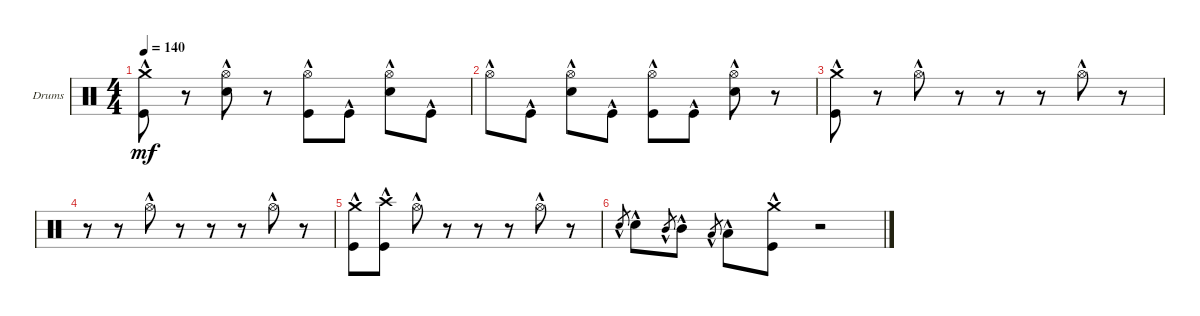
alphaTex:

\defaultSystemsLayout 4
\bracketExtendMode groupsimilarinstruments
\firstSystemTrackNameOrientation horizontal
\otherSystemsTrackNameOrientation horizontal
\track ("Drumkit" "Drums") {instrument percussion}
\staff {score}
\articulation defaults
\ts (4 4)
\tempo 140
\clef neutral
\ks c
("Kick (hit)"{hac} "Crash medium (hit)"{hac}).8{dy mf} r.8 ("Hi-Hat (open)"{hac} "Snare (hit) 2"{hac}).8 r.8 ("Hi-Hat (open)"{hac} "Kick (hit)"{hac}).8 "Kick (hit)"{hac}.8 ("Hi-Hat (open)"{hac} "Snare (hit) 2"{hac}).8 "Kick (hit)"{hac}.8 |
"Hi-Hat (open)"{hac}.8 "Kick (hit)"{hac}.8 ("Hi-Hat (open)"{hac} "Snare (hit) 2"{hac}).8 "Kick (hit)"{hac}.8 ("Hi-Hat (open)"{hac} "Kick (hit)"{hac}).8 "Kick (hit)"{hac}.8 ("Hi-Hat (open)"{hac} "Snare (hit) 2"{hac}).8 r.8 |
("Kick (hit)"{hac} "Crash medium (hit)"{hac}).8 r.8 "Hi-Hat (open)"{hac}.8 r.8 r.8 r.8 "Hi-Hat (open)"{hac}.8 r.8 |
r.8 r.8 "Hi-Hat (open)"{hac}.8 r.8 r.8 r.8 "Hi-Hat (open)"{hac}.8 r.8 |
("Kick (hit)"{hac} "Crash medium (hit)"{hac}).8 ("Kick (hit)"{hac} "Crash high (hit)"{hac}).8 "Hi-Hat (open)"{hac}.8 r.8 r.8 r.8 "Hi-Hat (open)"{hac}.8 r.8 |
"Snare (hit) 2"{hac}.8{gr} "Snare (hit) 2"{hac}.8 "Mid Tom (hit)"{hac}.8{gr} "Mid Tom (hit)"{hac}.8 "Low Tom (hit)"{hac}.8{gr} "Low Tom (hit)"{hac}.8 ("Kick (hit)"{hac} "Crash medium (hit)"{hac}).8 r.2
